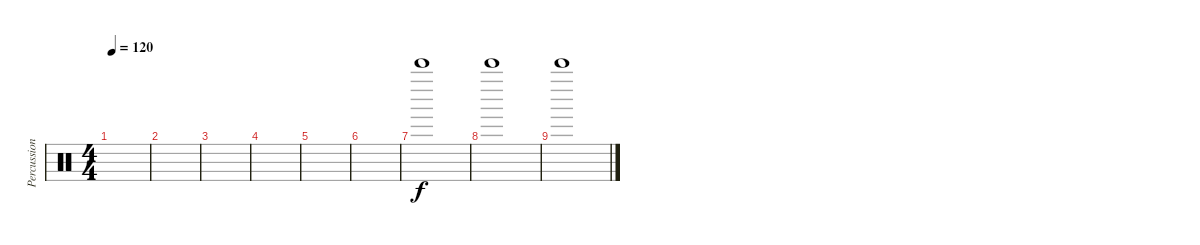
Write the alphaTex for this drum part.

\track ("Percussions" "Percussion") {instrument percussion}
\staff {score}
\articulation defaults
\ts (4 4)
\tempo 120
\clef neutral
\ks c
|
|
|
|
|
|
"Bell Tree (hit)".1 |
"Bell Tree (hit)".1 |
"Bell Tree (hit)".1
